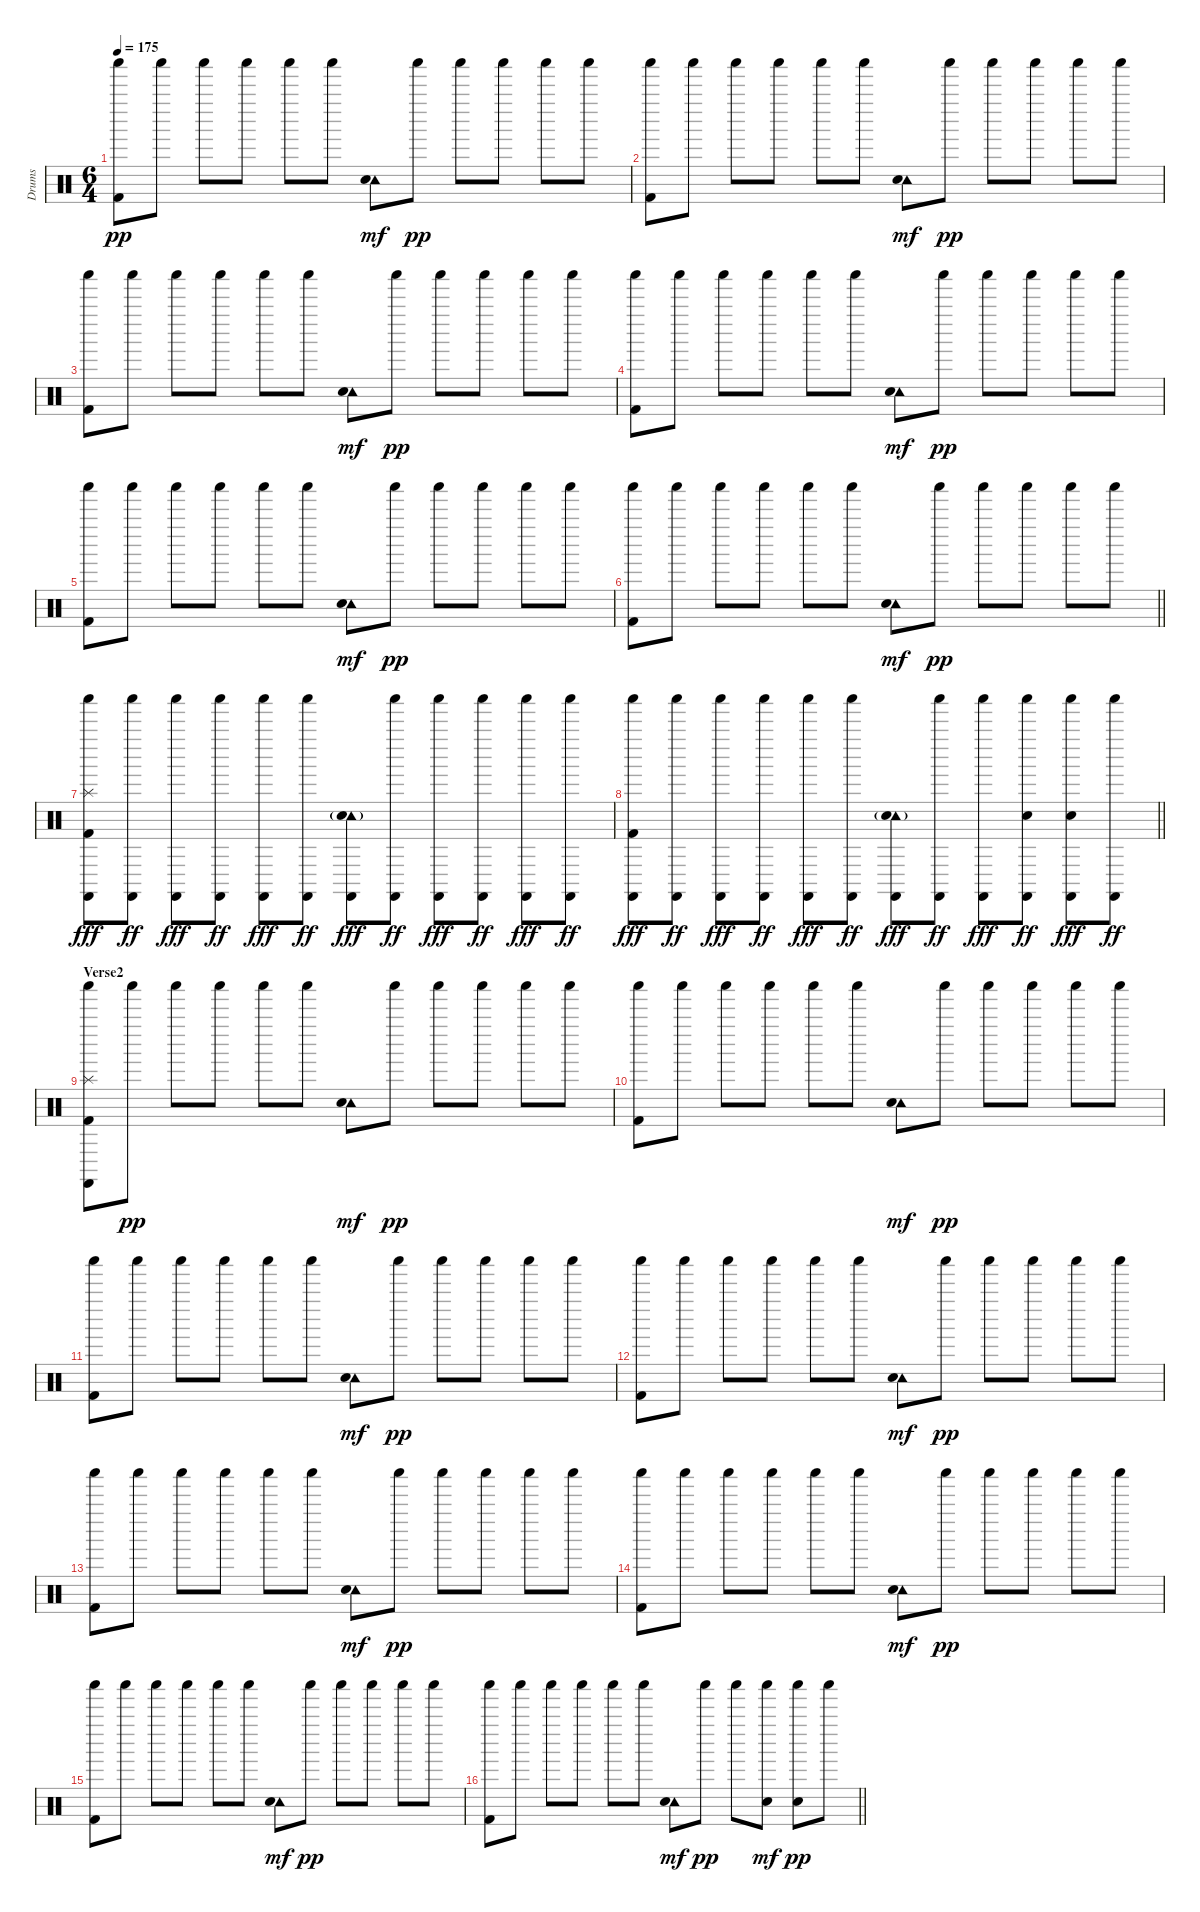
\track ("Drums" "Drums") {instrument percussion}
\staff {score}
\articulation defaults
\ts (6 4)
\tempo 175
\clef neutral
\ks c
("Shaker (hit)" "Kick (hit) 2").8{dy pp} "Shaker (hit)".8 "Shaker (hit)".8 "Shaker (hit)".8 "Shaker (hit)".8 "Shaker (hit)".8 ("Tambourine (hit)" "Snare (hit) 2").8{dy mf} "Shaker (hit)".8{dy pp} "Shaker (hit)".8 "Shaker (hit)".8 "Shaker (hit)".8 "Shaker (hit)".8 |
("Shaker (hit)" "Kick (hit) 2").8 "Shaker (hit)".8 "Shaker (hit)".8 "Shaker (hit)".8 "Shaker (hit)".8 "Shaker (hit)".8 ("Tambourine (hit)" "Snare (hit) 2").8{dy mf} "Shaker (hit)".8{dy pp} "Shaker (hit)".8 "Shaker (hit)".8 "Shaker (hit)".8 "Shaker (hit)".8 |
("Shaker (hit)" "Kick (hit) 2").8 "Shaker (hit)".8 "Shaker (hit)".8 "Shaker (hit)".8 "Shaker (hit)".8 "Shaker (hit)".8 ("Tambourine (hit)" "Snare (hit) 2").8{dy mf} "Shaker (hit)".8{dy pp} "Shaker (hit)".8 "Shaker (hit)".8 "Shaker (hit)".8 "Shaker (hit)".8 |
("Shaker (hit)" "Kick (hit) 2").8 "Shaker (hit)".8 "Shaker (hit)".8 "Shaker (hit)".8 "Shaker (hit)".8 "Shaker (hit)".8 ("Tambourine (hit)" "Snare (hit) 2").8{dy mf} "Shaker (hit)".8{dy pp} "Shaker (hit)".8 "Shaker (hit)".8 "Shaker (hit)".8 "Shaker (hit)".8 |
("Shaker (hit)" "Kick (hit) 2").8 "Shaker (hit)".8 "Shaker (hit)".8 "Shaker (hit)".8 "Shaker (hit)".8 "Shaker (hit)".8 ("Tambourine (hit)" "Snare (hit) 2").8{dy mf} "Shaker (hit)".8{dy pp} "Shaker (hit)".8 "Shaker (hit)".8 "Shaker (hit)".8 "Shaker (hit)".8 |
\barLineRight lightlight
("Shaker (hit)" "Kick (hit) 2").8 "Shaker (hit)".8 "Shaker (hit)".8 "Shaker (hit)".8 "Shaker (hit)".8 "Shaker (hit)".8 ("Tambourine (hit)" "Snare (hit) 2").8{dy mf} "Shaker (hit)".8{dy pp} "Shaker (hit)".8 "Shaker (hit)".8 "Shaker (hit)".8 "Shaker (hit)".8 |
("Splash (hit)" "Shaker (hit)" "Castanets (hit)" "Kick (hit) 2").8{dy fff} ("Shaker (hit)" "Castanets (hit)").8{dy ff} ("Shaker (hit)" "Castanets (hit)").8{dy fff} ("Shaker (hit)" "Castanets (hit)").8{dy ff} ("Shaker (hit)" "Castanets (hit)").8{dy fff} ("Shaker (hit)" "Castanets (hit)").8{dy ff} ("Tambourine (hit)"{g} "Snare (hit) 2" "Castanets (hit)").8{dy fff} ("Shaker (hit)" "Castanets (hit)").8{dy ff} ("Shaker (hit)" "Castanets (hit)").8{dy fff} ("Shaker (hit)" "Castanets (hit)").8{dy ff} ("Shaker (hit)" "Castanets (hit)").8{dy fff} ("Shaker (hit)" "Castanets (hit)").8{dy ff} |
\barLineRight lightlight
("Shaker (hit)" "Castanets (hit)" "Kick (hit) 2").8{dy fff} ("Shaker (hit)" "Castanets (hit)").8{dy ff} ("Shaker (hit)" "Castanets (hit)").8{dy fff} ("Shaker (hit)" "Castanets (hit)").8{dy ff} ("Shaker (hit)" "Castanets (hit)").8{dy fff} ("Shaker (hit)" "Castanets (hit)").8{dy ff} ("Tambourine (hit)"{g} "Snare (hit) 2" "Castanets (hit)").8{dy fff} ("Shaker (hit)" "Castanets (hit)").8{dy ff} ("Shaker (hit)" "Castanets (hit)").8{dy fff} ("Shaker (hit)" "Snare (hit) 2" "Castanets (hit)").8{dy ff} ("Shaker (hit)" "Snare (hit) 2" "Castanets (hit)").8{dy fff} ("Shaker (hit)" "Castanets (hit)").8{dy ff} |
\section ("" "Verse2")
("Splash (hit)" "Shaker (hit)" "Castanets (hit)" "Kick (hit) 2").8 "Shaker (hit)".8{dy pp} "Shaker (hit)".8 "Shaker (hit)".8 "Shaker (hit)".8 "Shaker (hit)".8 ("Tambourine (hit)" "Snare (hit) 2").8{dy mf} "Shaker (hit)".8{dy pp} "Shaker (hit)".8 "Shaker (hit)".8 "Shaker (hit)".8 "Shaker (hit)".8 |
("Shaker (hit)" "Kick (hit) 2").8 "Shaker (hit)".8 "Shaker (hit)".8 "Shaker (hit)".8 "Shaker (hit)".8 "Shaker (hit)".8 ("Tambourine (hit)" "Snare (hit) 2").8{dy mf} "Shaker (hit)".8{dy pp} "Shaker (hit)".8 "Shaker (hit)".8 "Shaker (hit)".8 "Shaker (hit)".8 |
("Shaker (hit)" "Kick (hit) 2").8 "Shaker (hit)".8 "Shaker (hit)".8 "Shaker (hit)".8 "Shaker (hit)".8 "Shaker (hit)".8 ("Tambourine (hit)" "Snare (hit) 2").8{dy mf} "Shaker (hit)".8{dy pp} "Shaker (hit)".8 "Shaker (hit)".8 "Shaker (hit)".8 "Shaker (hit)".8 |
("Shaker (hit)" "Kick (hit) 2").8 "Shaker (hit)".8 "Shaker (hit)".8 "Shaker (hit)".8 "Shaker (hit)".8 "Shaker (hit)".8 ("Tambourine (hit)" "Snare (hit) 2").8{dy mf} "Shaker (hit)".8{dy pp} "Shaker (hit)".8 "Shaker (hit)".8 "Shaker (hit)".8 "Shaker (hit)".8 |
("Shaker (hit)" "Kick (hit) 2").8 "Shaker (hit)".8 "Shaker (hit)".8 "Shaker (hit)".8 "Shaker (hit)".8 "Shaker (hit)".8 ("Tambourine (hit)" "Snare (hit) 2").8{dy mf} "Shaker (hit)".8{dy pp} "Shaker (hit)".8 "Shaker (hit)".8 "Shaker (hit)".8 "Shaker (hit)".8 |
("Shaker (hit)" "Kick (hit) 2").8 "Shaker (hit)".8 "Shaker (hit)".8 "Shaker (hit)".8 "Shaker (hit)".8 "Shaker (hit)".8 ("Tambourine (hit)" "Snare (hit) 2").8{dy mf} "Shaker (hit)".8{dy pp} "Shaker (hit)".8 "Shaker (hit)".8 "Shaker (hit)".8 "Shaker (hit)".8 |
("Shaker (hit)" "Kick (hit) 2").8 "Shaker (hit)".8 "Shaker (hit)".8 "Shaker (hit)".8 "Shaker (hit)".8 "Shaker (hit)".8 ("Tambourine (hit)" "Snare (hit) 2").8{dy mf} "Shaker (hit)".8{dy pp} "Shaker (hit)".8 "Shaker (hit)".8 "Shaker (hit)".8 "Shaker (hit)".8 |
\barLineRight lightlight
("Shaker (hit)" "Kick (hit) 2").8 "Shaker (hit)".8 "Shaker (hit)".8 "Shaker (hit)".8 "Shaker (hit)".8 "Shaker (hit)".8 ("Tambourine (hit)" "Snare (hit) 2").8{dy mf} "Shaker (hit)".8{dy pp} "Shaker (hit)".8 ("Shaker (hit)" "Snare (hit) 2").8{dy mf} ("Shaker (hit)" "Snare (hit) 2").8{dy pp} "Shaker (hit)".8
